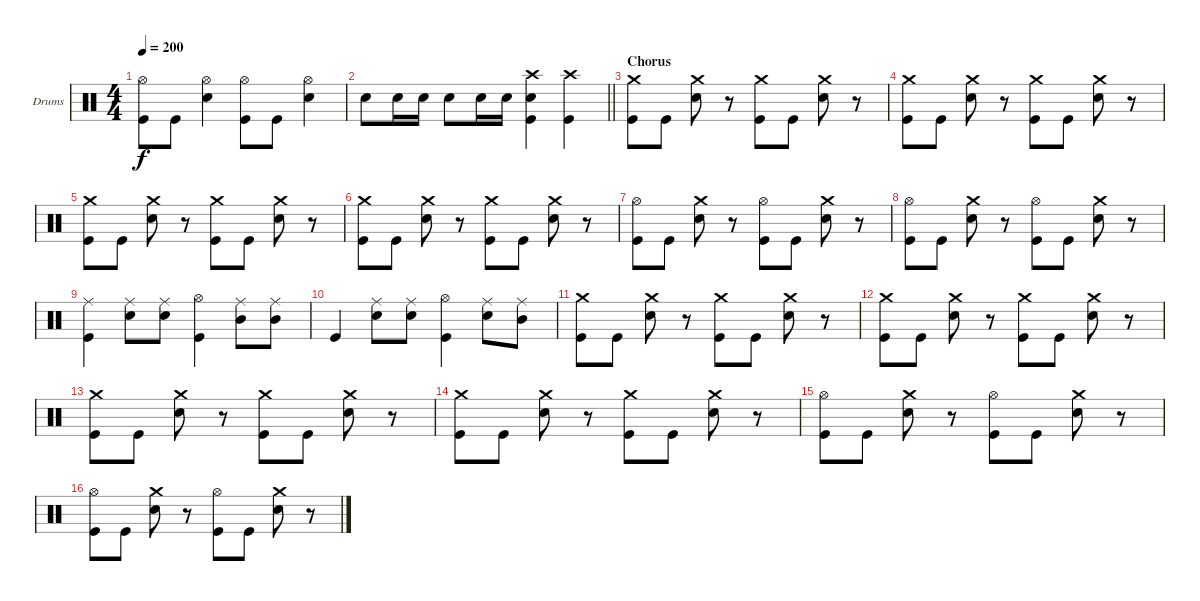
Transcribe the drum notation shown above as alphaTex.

\bracketExtendMode groupsimilarinstruments
\firstSystemTrackNameOrientation horizontal
\otherSystemsTrackNameOrientation horizontal
\track ("Drumkit" "Drums") {instrument percussion}
\staff {score}
\articulation defaults
\ts (4 4)
\tempo 200
\clef neutral
\ks c
("Hi-Hat (open)" "Kick (hit)").8{dy f} "Kick (hit)".8 ("Hi-Hat (open)" "Snare (hit) 2").4 ("Hi-Hat (open)" "Kick (hit)").8 "Kick (hit)".8 ("Hi-Hat (open)" "Snare (hit) 2").4 |
\barLineRight lightlight "Snare (hit) 2".8 "Snare (hit) 2".16 "Snare (hit) 2".16 "Snare (hit) 2".8 "Snare (hit) 2".16 "Snare (hit) 2".16
("Snare (hit) 2" "Kick (hit)" "Crash high (hit)").4 ("Kick (hit)" "Crash high (hit)").4 |
\section ("" "Chorus")
("Crash medium (hit)" "Kick (hit)").8 "Kick (hit)".8 ("Crash medium (hit)" "Snare (hit) 2").8 r.8 ("Crash medium (hit)" "Kick (hit)").8 "Kick (hit)".8 ("Crash medium (hit)" "Snare (hit) 2").8 r.8 |
("Crash medium (hit)" "Kick (hit)").8 "Kick (hit)".8 ("Crash medium (hit)" "Snare (hit) 2").8 r.8 ("Crash medium (hit)" "Kick (hit)").8 "Kick (hit)".8 ("Crash medium (hit)" "Snare (hit) 2").8 r.8 |
("Crash medium (hit)" "Kick (hit)").8 "Kick (hit)".8 ("Crash medium (hit)" "Snare (hit) 2").8 r.8 ("Crash medium (hit)" "Kick (hit)").8 "Kick (hit)".8 ("Crash medium (hit)" "Snare (hit) 2").8 r.8 |
("Crash medium (hit)" "Kick (hit)").8 "Kick (hit)".8 ("Crash medium (hit)" "Snare (hit) 2").8 r.8 ("Crash medium (hit)" "Kick (hit)").8 "Kick (hit)".8 ("Crash medium (hit)" "Snare (hit) 2").8 r.8 |
("Kick (hit)" "Hi-Hat (open)").8 "Kick (hit)".8 ("Crash medium (hit)" "Snare (hit) 2").8 r.8 ("Kick (hit)" "Hi-Hat (open)").8 "Kick (hit)".8 ("Crash medium (hit)" "Snare (hit) 2").8 r.8 |
("Kick (hit)" "Hi-Hat (open)").8 "Kick (hit)".8 ("Crash medium (hit)" "Snare (hit) 2").8 r.8 ("Kick (hit)" "Hi-Hat (open)").8 "Kick (hit)".8 ("Crash medium (hit)" "Snare (hit) 2").8 r.8 |
("Ride (middle)" "Kick (hit)").4 ("Ride (middle)" "Snare (hit) 2").8 ("Ride (middle)" "Snare (hit) 2").8 ("Hi-Hat (open)" "Kick (hit)").4 ("Ride (middle)" "Mid Tom (hit)").8 ("Ride (middle)" "Mid Tom (hit)").8 |
"Kick (hit)".4 ("Ride (middle)" "Snare (hit) 2").8 ("Ride (middle)" "Snare (hit) 2").8 ("Hi-Hat (open)" "Kick (hit)").4 ("Ride (middle)" "Snare (hit) 2").8 ("Ride (middle)" "Mid Tom (hit)").8 |
("Crash medium (hit)" "Kick (hit)").8 "Kick (hit)".8 ("Crash medium (hit)" "Snare (hit) 2").8 r.8 ("Crash medium (hit)" "Kick (hit)").8 "Kick (hit)".8 ("Crash medium (hit)" "Snare (hit) 2").8 r.8 |
("Crash medium (hit)" "Kick (hit)").8 "Kick (hit)".8 ("Crash medium (hit)" "Snare (hit) 2").8 r.8 ("Crash medium (hit)" "Kick (hit)").8 "Kick (hit)".8 ("Crash medium (hit)" "Snare (hit) 2").8 r.8 |
("Crash medium (hit)" "Kick (hit)").8 "Kick (hit)".8 ("Crash medium (hit)" "Snare (hit) 2").8 r.8 ("Crash medium (hit)" "Kick (hit)").8 "Kick (hit)".8 ("Crash medium (hit)" "Snare (hit) 2").8 r.8 |
("Crash medium (hit)" "Kick (hit)").8 "Kick (hit)".8 ("Crash medium (hit)" "Snare (hit) 2").8 r.8 ("Crash medium (hit)" "Kick (hit)").8 "Kick (hit)".8 ("Crash medium (hit)" "Snare (hit) 2").8 r.8 |
("Kick (hit)" "Hi-Hat (open)").8 "Kick (hit)".8 ("Crash medium (hit)" "Snare (hit) 2").8 r.8 ("Kick (hit)" "Hi-Hat (open)").8 "Kick (hit)".8 ("Crash medium (hit)" "Snare (hit) 2").8 r.8 |
("Kick (hit)" "Hi-Hat (open)").8 "Kick (hit)".8 ("Crash medium (hit)" "Snare (hit) 2").8 r.8 ("Kick (hit)" "Hi-Hat (open)").8 "Kick (hit)".8 ("Crash medium (hit)" "Snare (hit) 2").8 r.8
